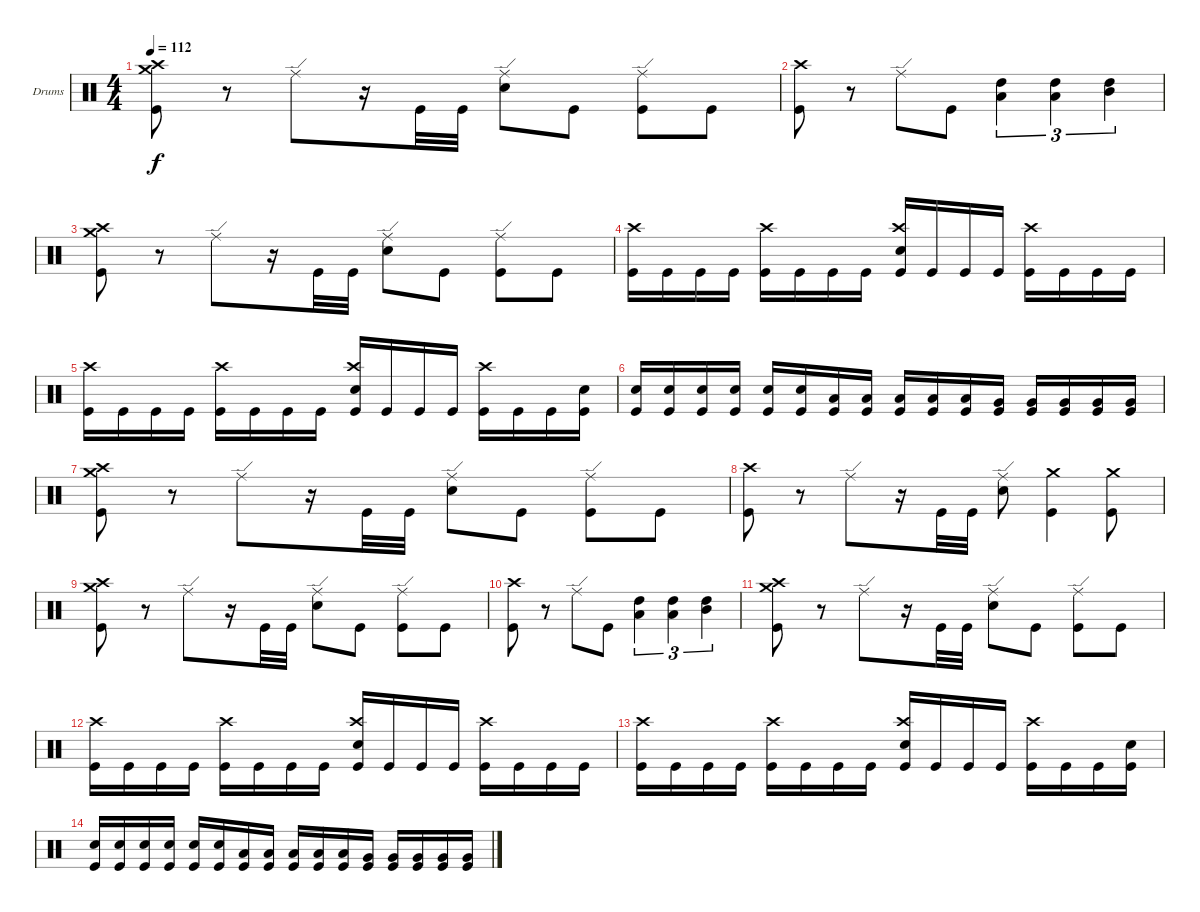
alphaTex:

\bracketExtendMode groupsimilarinstruments
\firstSystemTrackNameOrientation horizontal
\otherSystemsTrackNameOrientation horizontal
\track ("Drumkit" "Drums") {instrument percussion}
\staff {score}
\articulation defaults
\ts (4 4)
\tempo 112
\clef neutral
\scale
0.333333
\ks c
("Kick (hit)" "Crash medium (hit)" "Crash high (hit)").8{dy f} r.8 "Ride (edge)".8 r.16 "Kick (hit)".32 "Kick (hit)".32 ("Snare (hit) 2" "Ride (edge)").8 "Kick (hit)".8 ("Kick (hit)" "Ride (edge)").8 "Kick (hit)".8 |
\scale
0.333333 ("Kick (hit)" "Crash high (hit)").8 r.8 "Ride (edge)".8 "Kick (hit)".8 ("High Tom (hit)" "Low Tom (hit)").4{tu (3 2)} ("Low Tom (hit)" "High Tom (hit)").4{tu (3 2)} ("High Tom (hit)" "Mid Tom (hit)").4{tu (3 2)} |
\scale
0.333333 ("Kick (hit)" "Crash medium (hit)" "Crash high (hit)").8 r.8 "Ride (edge)".8 r.16 "Kick (hit)".32 "Kick (hit)".32 ("Snare (hit) 2" "Ride (edge)").8 "Kick (hit)".8 ("Kick (hit)" "Ride (edge)").8 "Kick (hit)".8 |
\scale
0.333333 ("Kick (hit)" "Crash high (hit)").16 "Kick (hit)".16 "Kick (hit)".16 "Kick (hit)".16 ("Kick (hit)" "Crash high (hit)").16 "Kick (hit)".16 "Kick (hit)".16 "Kick (hit)".16 ("Kick (hit)" "Crash high (hit)" "Snare (hit) 2").16 "Kick (hit)".16 "Kick (hit)".16 "Kick (hit)".16 ("Kick (hit)" "Crash high (hit)").16 "Kick (hit)".16 "Kick (hit)".16 "Kick (hit)".16 |
\scale
0.333333 ("Kick (hit)" "Crash high (hit)").16 "Kick (hit)".16 "Kick (hit)".16 "Kick (hit)".16 ("Kick (hit)" "Crash high (hit)").16 "Kick (hit)".16 "Kick (hit)".16 "Kick (hit)".16 ("Kick (hit)" "Crash high (hit)" "Snare (hit) 2").16 "Kick (hit)".16 "Kick (hit)".16 "Kick (hit)".16 ("Kick (hit)" "Crash high (hit)").16 "Kick (hit)".16 "Kick (hit)".16 ("Kick (hit)" "Snare (hit) 2").16 |
\scale
0.333333 ("Snare (hit) 2" "Kick (hit)").16 ("Snare (hit) 2" "Kick (hit)").16 ("Snare (hit) 2" "Kick (hit)").16 ("Snare (hit) 2" "Kick (hit)").16 ("Snare (hit) 2" "Kick (hit)").16 ("Snare (hit) 2" "Kick (hit)").16 ("Low Tom (hit)" "Kick (hit)").16 ("Low Tom (hit)" "Kick (hit)").16 ("Low Tom (hit)" "Kick (hit)").16 ("Low Tom (hit)" "Kick (hit)").16 ("Low Tom (hit)" "Kick (hit)").16 ("Very Low Tom (hit)" "Kick (hit)").16 ("Very Low Tom (hit)" "Kick (hit)").16 ("Very Low Tom (hit)" "Kick (hit)").16 ("Very Low Tom (hit)" "Kick (hit)").16 ("Very Low Tom (hit)" "Kick (hit)").16 |
\scale
0.333333 ("Kick (hit)" "Crash medium (hit)" "Crash high (hit)").8 r.8 "Ride (edge)".8 r.16 "Kick (hit)".32 "Kick (hit)".32 ("Snare (hit) 2" "Ride (edge)").8 "Kick (hit)".8 ("Kick (hit)" "Ride (edge)").8 "Kick (hit)".8 |
\scale
0.333333 ("Kick (hit)" "Crash high (hit)").8 r.8 "Ride (edge)".8 r.16 "Kick (hit)".32 "Kick (hit)".32 ("Snare (hit) 2" "Ride (edge)").8 ("Kick (hit)" "Crash medium (hit)").4 ("Kick (hit)" "Crash medium (hit)").8 |
\scale
0.333333 ("Kick (hit)" "Crash medium (hit)" "Crash high (hit)").8 r.8 "Ride (edge)".8 r.16 "Kick (hit)".32 "Kick (hit)".32 ("Snare (hit) 2" "Ride (edge)").8 "Kick (hit)".8 ("Kick (hit)" "Ride (edge)").8 "Kick (hit)".8 |
\scale
0.333333 ("Kick (hit)" "Crash high (hit)").8 r.8 "Ride (edge)".8 "Kick (hit)".8 ("High Tom (hit)" "Low Tom (hit)").4{tu (3 2)} ("Low Tom (hit)" "High Tom (hit)").4{tu (3 2)} ("High Tom (hit)" "Mid Tom (hit)").4{tu (3 2)} |
\scale
0.333333 ("Kick (hit)" "Crash medium (hit)" "Crash high (hit)").8 r.8 "Ride (edge)".8 r.16 "Kick (hit)".32 "Kick (hit)".32 ("Snare (hit) 2" "Ride (edge)").8 "Kick (hit)".8 ("Kick (hit)" "Ride (edge)").8 "Kick (hit)".8 |
\scale
0.333333 ("Kick (hit)" "Crash high (hit)").16 "Kick (hit)".16 "Kick (hit)".16 "Kick (hit)".16 ("Kick (hit)" "Crash high (hit)").16 "Kick (hit)".16 "Kick (hit)".16 "Kick (hit)".16 ("Kick (hit)" "Crash high (hit)" "Snare (hit) 2").16 "Kick (hit)".16 "Kick (hit)".16 "Kick (hit)".16 ("Kick (hit)" "Crash high (hit)").16 "Kick (hit)".16 "Kick (hit)".16 "Kick (hit)".16 |
\scale
0.333333 ("Kick (hit)" "Crash high (hit)").16 "Kick (hit)".16 "Kick (hit)".16 "Kick (hit)".16 ("Kick (hit)" "Crash high (hit)").16 "Kick (hit)".16 "Kick (hit)".16 "Kick (hit)".16 ("Kick (hit)" "Crash high (hit)" "Snare (hit) 2").16 "Kick (hit)".16 "Kick (hit)".16 "Kick (hit)".16 ("Kick (hit)" "Crash high (hit)").16 "Kick (hit)".16 "Kick (hit)".16 ("Kick (hit)" "Snare (hit) 2").16 |
\scale
0.333333 ("Snare (hit) 2" "Kick (hit)").16 ("Snare (hit) 2" "Kick (hit)").16 ("Snare (hit) 2" "Kick (hit)").16 ("Snare (hit) 2" "Kick (hit)").16 ("Snare (hit) 2" "Kick (hit)").16 ("Snare (hit) 2" "Kick (hit)").16 ("Low Tom (hit)" "Kick (hit)").16 ("Low Tom (hit)" "Kick (hit)").16 ("Low Tom (hit)" "Kick (hit)").16 ("Low Tom (hit)" "Kick (hit)").16 ("Low Tom (hit)" "Kick (hit)").16 ("Very Low Tom (hit)" "Kick (hit)").16 ("Very Low Tom (hit)" "Kick (hit)").16 ("Very Low Tom (hit)" "Kick (hit)").16 ("Very Low Tom (hit)" "Kick (hit)").16 ("Very Low Tom (hit)" "Kick (hit)").16 |
\scale
0.333333
